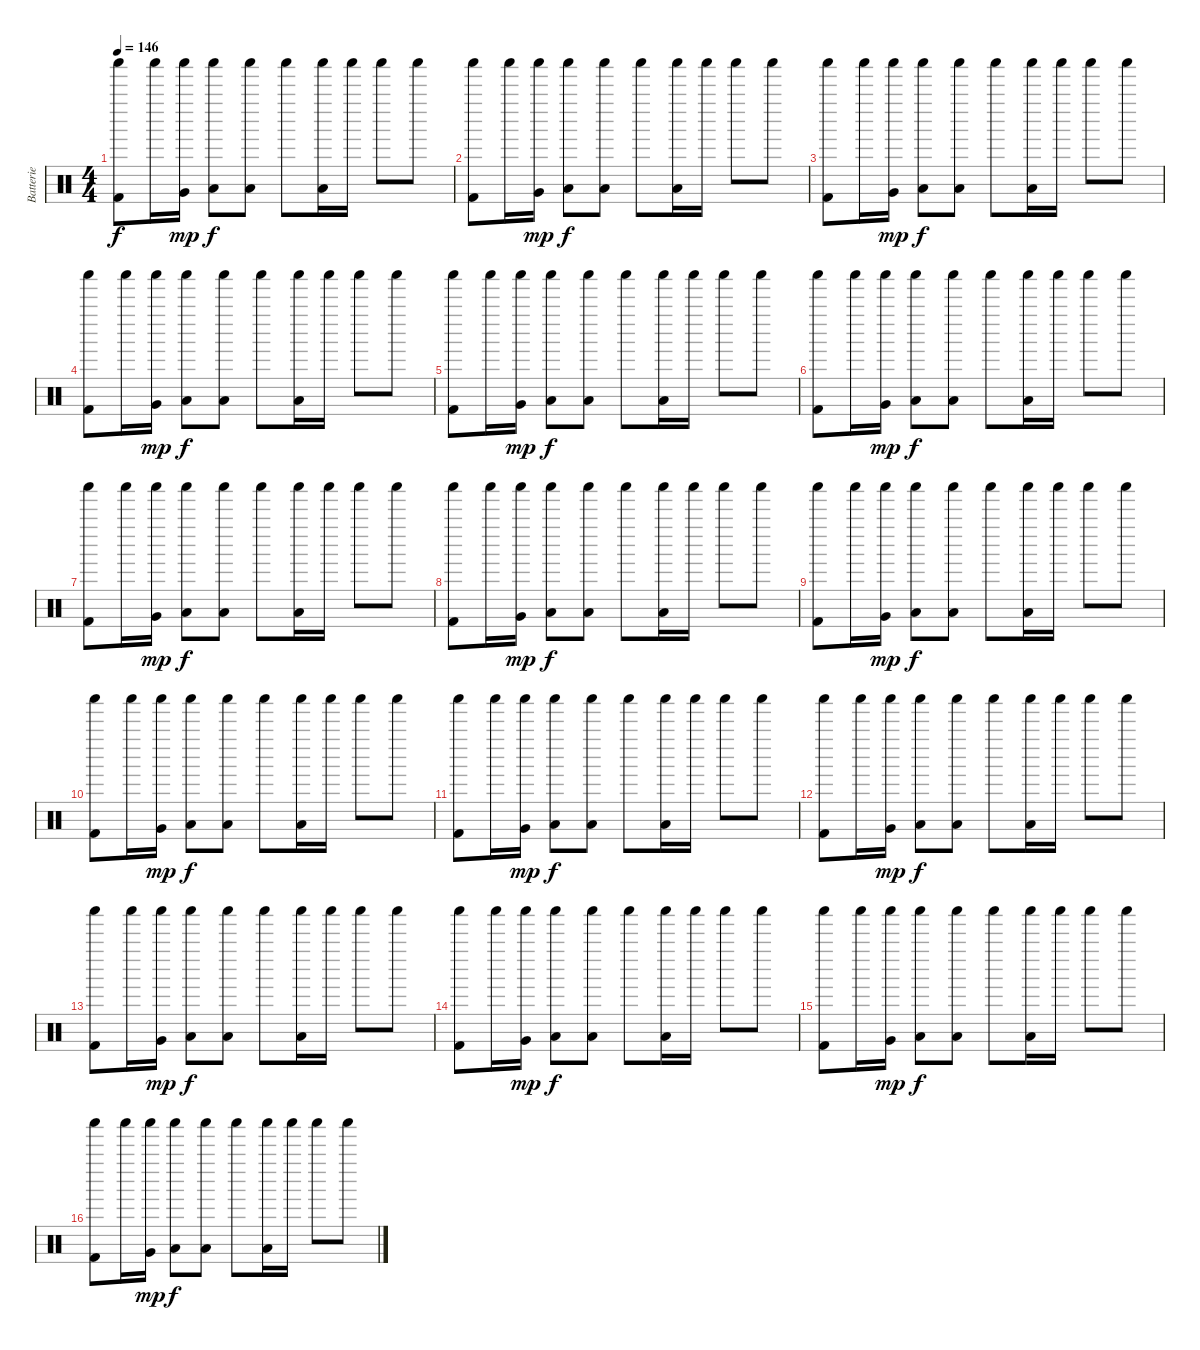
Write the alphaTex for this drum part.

\track ("Batterie" "Batterie") {instrument percussion}
\staff {score}
\articulation defaults
\ts (4 4)
\tempo 146
\clef neutral
\ks c
("Shaker (hit)" "Kick (hit) 2").8{dy f} "Shaker (hit)".16 ("Shaker (hit)" "Very Low Tom (hit)").16{dy mp} ("Shaker (hit)" "Low Tom (hit)").8{dy f} ("Shaker (hit)" "Low Tom (hit)").8 "Shaker (hit)".8 ("Shaker (hit)" "Low Tom (hit)").16 "Shaker (hit)".16 "Shaker (hit)".8 "Shaker (hit)".8 |
("Shaker (hit)" "Kick (hit) 2").8 "Shaker (hit)".16 ("Shaker (hit)" "Very Low Tom (hit)").16{dy mp} ("Shaker (hit)" "Low Tom (hit)").8{dy f} ("Shaker (hit)" "Low Tom (hit)").8 "Shaker (hit)".8 ("Shaker (hit)" "Low Tom (hit)").16 "Shaker (hit)".16 "Shaker (hit)".8 "Shaker (hit)".8 |
("Shaker (hit)" "Kick (hit) 2").8 "Shaker (hit)".16 ("Shaker (hit)" "Very Low Tom (hit)").16{dy mp} ("Shaker (hit)" "Low Tom (hit)").8{dy f} ("Shaker (hit)" "Low Tom (hit)").8 "Shaker (hit)".8 ("Shaker (hit)" "Low Tom (hit)").16 "Shaker (hit)".16 "Shaker (hit)".8 "Shaker (hit)".8 |
("Shaker (hit)" "Kick (hit) 2").8 "Shaker (hit)".16 ("Shaker (hit)" "Very Low Tom (hit)").16{dy mp} ("Shaker (hit)" "Low Tom (hit)").8{dy f} ("Shaker (hit)" "Low Tom (hit)").8 "Shaker (hit)".8 ("Shaker (hit)" "Low Tom (hit)").16 "Shaker (hit)".16 "Shaker (hit)".8 "Shaker (hit)".8 |
("Shaker (hit)" "Kick (hit) 2").8 "Shaker (hit)".16 ("Shaker (hit)" "Very Low Tom (hit)").16{dy mp} ("Shaker (hit)" "Low Tom (hit)").8{dy f} ("Shaker (hit)" "Low Tom (hit)").8 "Shaker (hit)".8 ("Shaker (hit)" "Low Tom (hit)").16 "Shaker (hit)".16 "Shaker (hit)".8 "Shaker (hit)".8 |
("Shaker (hit)" "Kick (hit) 2").8 "Shaker (hit)".16 ("Shaker (hit)" "Very Low Tom (hit)").16{dy mp} ("Shaker (hit)" "Low Tom (hit)").8{dy f} ("Shaker (hit)" "Low Tom (hit)").8 "Shaker (hit)".8 ("Shaker (hit)" "Low Tom (hit)").16 "Shaker (hit)".16 "Shaker (hit)".8 "Shaker (hit)".8 |
("Shaker (hit)" "Kick (hit) 2").8 "Shaker (hit)".16 ("Shaker (hit)" "Very Low Tom (hit)").16{dy mp} ("Shaker (hit)" "Low Tom (hit)").8{dy f} ("Shaker (hit)" "Low Tom (hit)").8 "Shaker (hit)".8 ("Shaker (hit)" "Low Tom (hit)").16 "Shaker (hit)".16 "Shaker (hit)".8 "Shaker (hit)".8 |
("Shaker (hit)" "Kick (hit) 2").8 "Shaker (hit)".16 ("Shaker (hit)" "Very Low Tom (hit)").16{dy mp} ("Shaker (hit)" "Low Tom (hit)").8{dy f} ("Shaker (hit)" "Low Tom (hit)").8 "Shaker (hit)".8 ("Shaker (hit)" "Low Tom (hit)").16 "Shaker (hit)".16 "Shaker (hit)".8 "Shaker (hit)".8 |
("Shaker (hit)" "Kick (hit) 2").8 "Shaker (hit)".16 ("Shaker (hit)" "Very Low Tom (hit)").16{dy mp} ("Shaker (hit)" "Low Tom (hit)").8{dy f} ("Shaker (hit)" "Low Tom (hit)").8 "Shaker (hit)".8 ("Shaker (hit)" "Low Tom (hit)").16 "Shaker (hit)".16 "Shaker (hit)".8 "Shaker (hit)".8 |
("Shaker (hit)" "Kick (hit) 2").8 "Shaker (hit)".16 ("Shaker (hit)" "Very Low Tom (hit)").16{dy mp} ("Shaker (hit)" "Low Tom (hit)").8{dy f} ("Shaker (hit)" "Low Tom (hit)").8 "Shaker (hit)".8 ("Shaker (hit)" "Low Tom (hit)").16 "Shaker (hit)".16 "Shaker (hit)".8 "Shaker (hit)".8 |
("Shaker (hit)" "Kick (hit) 2").8 "Shaker (hit)".16 ("Shaker (hit)" "Very Low Tom (hit)").16{dy mp} ("Shaker (hit)" "Low Tom (hit)").8{dy f} ("Shaker (hit)" "Low Tom (hit)").8 "Shaker (hit)".8 ("Shaker (hit)" "Low Tom (hit)").16 "Shaker (hit)".16 "Shaker (hit)".8 "Shaker (hit)".8 |
("Shaker (hit)" "Kick (hit) 2").8 "Shaker (hit)".16 ("Shaker (hit)" "Very Low Tom (hit)").16{dy mp} ("Shaker (hit)" "Low Tom (hit)").8{dy f} ("Shaker (hit)" "Low Tom (hit)").8 "Shaker (hit)".8 ("Shaker (hit)" "Low Tom (hit)").16 "Shaker (hit)".16 "Shaker (hit)".8 "Shaker (hit)".8 |
("Shaker (hit)" "Kick (hit) 2").8 "Shaker (hit)".16 ("Shaker (hit)" "Very Low Tom (hit)").16{dy mp} ("Shaker (hit)" "Low Tom (hit)").8{dy f} ("Shaker (hit)" "Low Tom (hit)").8 "Shaker (hit)".8 ("Shaker (hit)" "Low Tom (hit)").16 "Shaker (hit)".16 "Shaker (hit)".8 "Shaker (hit)".8 |
("Shaker (hit)" "Kick (hit) 2").8 "Shaker (hit)".16 ("Shaker (hit)" "Very Low Tom (hit)").16{dy mp} ("Shaker (hit)" "Low Tom (hit)").8{dy f} ("Shaker (hit)" "Low Tom (hit)").8 "Shaker (hit)".8 ("Shaker (hit)" "Low Tom (hit)").16 "Shaker (hit)".16 "Shaker (hit)".8 "Shaker (hit)".8 |
("Shaker (hit)" "Kick (hit) 2").8 "Shaker (hit)".16 ("Shaker (hit)" "Very Low Tom (hit)").16{dy mp} ("Shaker (hit)" "Low Tom (hit)").8{dy f} ("Shaker (hit)" "Low Tom (hit)").8 "Shaker (hit)".8 ("Shaker (hit)" "Low Tom (hit)").16 "Shaker (hit)".16 "Shaker (hit)".8 "Shaker (hit)".8 |
("Shaker (hit)" "Kick (hit) 2").8 "Shaker (hit)".16 ("Shaker (hit)" "Very Low Tom (hit)").16{dy mp} ("Shaker (hit)" "Low Tom (hit)").8{dy f} ("Shaker (hit)" "Low Tom (hit)").8 "Shaker (hit)".8 ("Shaker (hit)" "Low Tom (hit)").16 "Shaker (hit)".16 "Shaker (hit)".8 "Shaker (hit)".8
